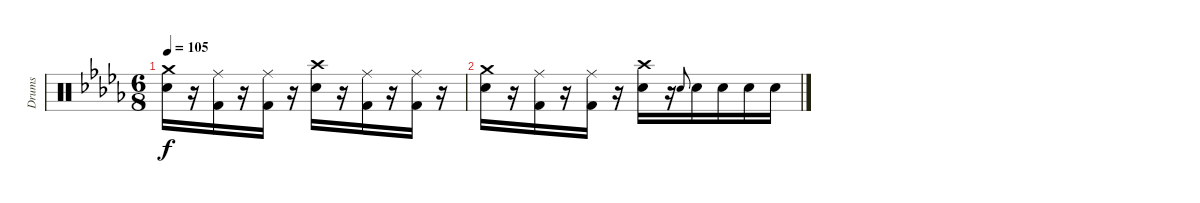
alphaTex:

\track ("Drums" "Drums") {instrument percussion}
\staff {score}
\articulation defaults
\ts (6 8)
\tempo 105
\clef neutral
\ks db
("Crash medium (hit)" "Snare (hit) 2").16{dy f} r.16 ("Ride (middle)" "Kick (hit) 2").16 r.16 ("Ride (middle)" "Kick (hit) 2").16 r.16 ("Crash high (hit)" "Snare (hit) 2").16 r.16 ("Ride (middle)" "Kick (hit) 2").16 r.16 ("Ride (middle)" "Kick (hit) 2").16 r.16 |
("Crash medium (hit)" "Snare (hit) 2").16 r.16 ("Ride (middle)" "Kick (hit) 2").16 r.16 ("Ride (middle)" "Kick (hit) 2").16 r.16 ("Crash high (hit)" "Snare (hit) 2").16 r.16 "Snare (hit) 2".8{gr onbeat} "Snare (hit) 2".16 "Snare (hit) 2".16 "Snare (hit) 2".16 "Snare (hit) 2".16
